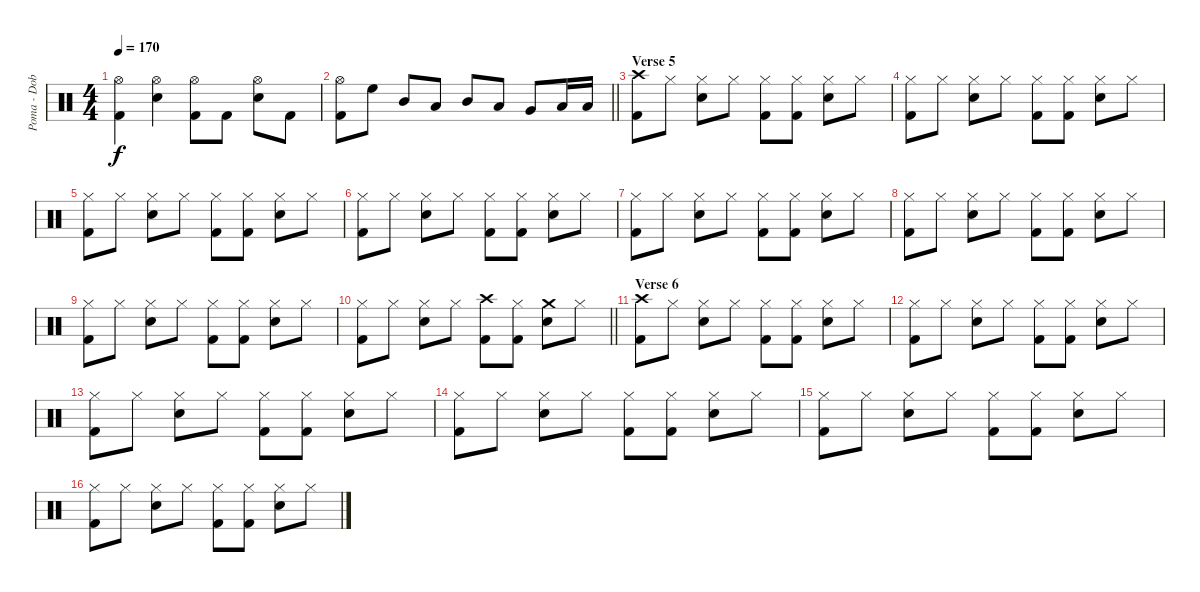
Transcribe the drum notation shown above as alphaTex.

\track ("Poma - Dob" "Poma - Dob") {instrument percussion}
\staff {score}
\articulation defaults
\ts (4 4)
\tempo 170
\clef neutral
\ks c
("Hi-Hat (open)" "Kick (hit) 2").4{dy f} ("Hi-Hat (open)" "Electric Snare (hit)").4 ("Hi-Hat (open)" "Kick (hit) 2").8 "Kick (hit) 2".8 ("Hi-Hat (open)" "Electric Snare (hit)").8 "Kick (hit) 2".8 |
\barLineRight lightlight
("Hi-Hat (open)" "Kick (hit) 2").8 "High Floor Tom (hit)".8 "Mid Tom (hit)".8 "Low Tom (hit)".8 "Mid Tom (hit)".8 "Low Tom (hit)".8 "Very Low Tom (hit)".8 "Low Tom (hit)".16 "Low Tom (hit)".16 |
\section ("" "Verse 5")
("Crash high (hit)" "Kick (hit) 2").8 "Hi-Hat (closed)".8 ("Hi-Hat (closed)" "Electric Snare (hit)").8 "Hi-Hat (closed)".8 ("Hi-Hat (closed)" "Kick (hit) 2").8 ("Hi-Hat (closed)" "Kick (hit) 2").8 ("Hi-Hat (closed)" "Electric Snare (hit)").8 "Hi-Hat (closed)".8 |
("Hi-Hat (closed)" "Kick (hit) 2").8 "Hi-Hat (closed)".8 ("Hi-Hat (closed)" "Electric Snare (hit)").8 "Hi-Hat (closed)".8 ("Hi-Hat (closed)" "Kick (hit) 2").8 ("Hi-Hat (closed)" "Kick (hit) 2").8 ("Hi-Hat (closed)" "Electric Snare (hit)").8 "Hi-Hat (closed)".8 |
("Hi-Hat (closed)" "Kick (hit) 2").8 "Hi-Hat (closed)".8 ("Hi-Hat (closed)" "Electric Snare (hit)").8 "Hi-Hat (closed)".8 ("Hi-Hat (closed)" "Kick (hit) 2").8 ("Hi-Hat (closed)" "Kick (hit) 2").8 ("Hi-Hat (closed)" "Electric Snare (hit)").8 "Hi-Hat (closed)".8 |
("Hi-Hat (closed)" "Kick (hit) 2").8 "Hi-Hat (closed)".8 ("Hi-Hat (closed)" "Electric Snare (hit)").8 "Hi-Hat (closed)".8 ("Hi-Hat (closed)" "Kick (hit) 2").8 ("Hi-Hat (closed)" "Kick (hit) 2").8 ("Hi-Hat (closed)" "Electric Snare (hit)").8 "Hi-Hat (closed)".8 |
("Hi-Hat (closed)" "Kick (hit) 2").8 "Hi-Hat (closed)".8 ("Hi-Hat (closed)" "Electric Snare (hit)").8 "Hi-Hat (closed)".8 ("Hi-Hat (closed)" "Kick (hit) 2").8 ("Hi-Hat (closed)" "Kick (hit) 2").8 ("Hi-Hat (closed)" "Electric Snare (hit)").8 "Hi-Hat (closed)".8 |
("Hi-Hat (closed)" "Kick (hit) 2").8 "Hi-Hat (closed)".8 ("Hi-Hat (closed)" "Electric Snare (hit)").8 "Hi-Hat (closed)".8 ("Hi-Hat (closed)" "Kick (hit) 2").8 ("Hi-Hat (closed)" "Kick (hit) 2").8 ("Hi-Hat (closed)" "Electric Snare (hit)").8 "Hi-Hat (closed)".8 |
("Hi-Hat (closed)" "Kick (hit) 2").8 "Hi-Hat (closed)".8 ("Hi-Hat (closed)" "Electric Snare (hit)").8 "Hi-Hat (closed)".8 ("Hi-Hat (closed)" "Kick (hit) 2").8 ("Hi-Hat (closed)" "Kick (hit) 2").8 ("Hi-Hat (closed)" "Electric Snare (hit)").8 "Hi-Hat (closed)".8 |
\barLineRight lightlight
("Hi-Hat (closed)" "Kick (hit) 2").8 "Hi-Hat (closed)".8 ("Hi-Hat (closed)" "Electric Snare (hit)").8 "Hi-Hat (closed)".8 ("Crash high (hit)" "Kick (hit) 2").8 ("Hi-Hat (closed)" "Kick (hit) 2").8 ("Crash medium (hit)" "Electric Snare (hit)").8 "Hi-Hat (closed)".8 |
\section ("" "Verse 6")
("Crash high (hit)" "Kick (hit) 2").8 "Hi-Hat (closed)".8 ("Hi-Hat (closed)" "Electric Snare (hit)").8 "Hi-Hat (closed)".8 ("Hi-Hat (closed)" "Kick (hit) 2").8 ("Hi-Hat (closed)" "Kick (hit) 2").8 ("Hi-Hat (closed)" "Electric Snare (hit)").8 "Hi-Hat (closed)".8 |
("Hi-Hat (closed)" "Kick (hit) 2").8 "Hi-Hat (closed)".8 ("Hi-Hat (closed)" "Electric Snare (hit)").8 "Hi-Hat (closed)".8 ("Hi-Hat (closed)" "Kick (hit) 2").8 ("Hi-Hat (closed)" "Kick (hit) 2").8 ("Hi-Hat (closed)" "Electric Snare (hit)").8 "Hi-Hat (closed)".8 |
("Hi-Hat (closed)" "Kick (hit) 2").8 "Hi-Hat (closed)".8 ("Hi-Hat (closed)" "Electric Snare (hit)").8 "Hi-Hat (closed)".8 ("Hi-Hat (closed)" "Kick (hit) 2").8 ("Hi-Hat (closed)" "Kick (hit) 2").8 ("Hi-Hat (closed)" "Electric Snare (hit)").8 "Hi-Hat (closed)".8 |
("Hi-Hat (closed)" "Kick (hit) 2").8 "Hi-Hat (closed)".8 ("Hi-Hat (closed)" "Electric Snare (hit)").8 "Hi-Hat (closed)".8 ("Hi-Hat (closed)" "Kick (hit) 2").8 ("Hi-Hat (closed)" "Kick (hit) 2").8 ("Hi-Hat (closed)" "Electric Snare (hit)").8 "Hi-Hat (closed)".8 |
("Hi-Hat (closed)" "Kick (hit) 2").8 "Hi-Hat (closed)".8 ("Hi-Hat (closed)" "Electric Snare (hit)").8 "Hi-Hat (closed)".8 ("Hi-Hat (closed)" "Kick (hit) 2").8 ("Hi-Hat (closed)" "Kick (hit) 2").8 ("Hi-Hat (closed)" "Electric Snare (hit)").8 "Hi-Hat (closed)".8 |
("Hi-Hat (closed)" "Kick (hit) 2").8 "Hi-Hat (closed)".8 ("Hi-Hat (closed)" "Electric Snare (hit)").8 "Hi-Hat (closed)".8 ("Hi-Hat (closed)" "Kick (hit) 2").8 ("Hi-Hat (closed)" "Kick (hit) 2").8 ("Hi-Hat (closed)" "Electric Snare (hit)").8 "Hi-Hat (closed)".8
